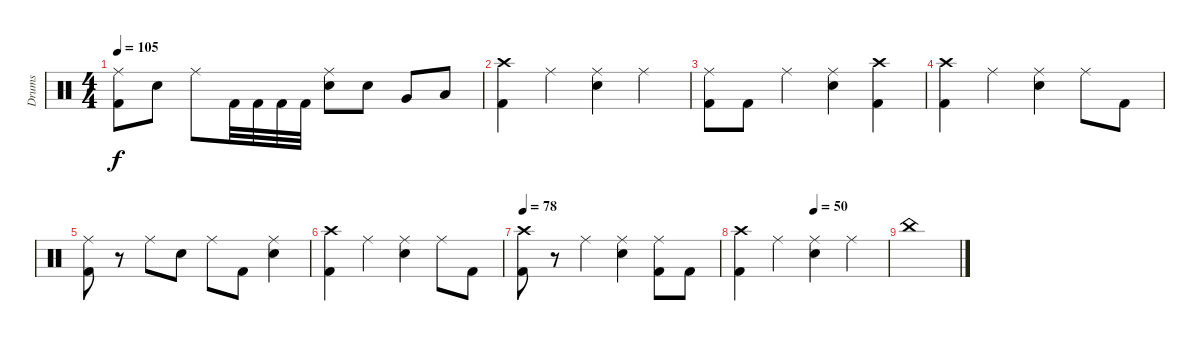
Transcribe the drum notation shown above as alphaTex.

\track ("Drums" "Drums") {instrument percussion}
\staff {score}
\articulation defaults
\ts (4 4)
\tempo 105
\clef neutral
\ks c
("Ride (middle)" "Kick (hit) 2").8{dy f} "Electric Snare (hit)".8 "Ride (middle)".8 "Kick (hit) 2".32 "Kick (hit) 2".32 "Kick (hit) 2".32 "Kick (hit) 2".32 ("Ride (middle)" "Electric Snare (hit)").8 "Electric Snare (hit)".8 "Very Low Tom (hit)".8 "Low Floor Tom (hit)".8 |
("Crash high (hit)" "Kick (hit) 2").4 "Ride (middle)".4 ("Ride (middle)" "Electric Snare (hit)").4 "Ride (middle)".4 |
("Ride (middle)" "Kick (hit) 2").8 "Kick (hit) 2".8 "Ride (middle)".4 ("Ride (middle)" "Electric Snare (hit)").4 ("Crash high (hit)" "Kick (hit) 2").4 |
("Crash high (hit)" "Kick (hit) 2").4 "Ride (middle)".4 ("Ride (middle)" "Electric Snare (hit)").4 "Ride (middle)".8 "Kick (hit) 2".8 |
("Ride (middle)" "Kick (hit) 2").8 r.8 "Ride (middle)".8 "Electric Snare (hit)".8 "Ride (middle)".8 "Kick (hit) 2".8 ("Ride (middle)" "Electric Snare (hit)").4 |
("Crash high (hit)" "Kick (hit) 2").4 "Ride (middle)".4 ("Ride (middle)" "Electric Snare (hit)").4 "Ride (middle)".8 "Kick (hit) 2".8 |
\tempo 78
("Crash high (hit)" "Kick (hit) 2").8 r.8 "Ride (middle)".4 ("Ride (middle)" "Electric Snare (hit)").4 ("Ride (middle)" "Kick (hit) 2").8 "Kick (hit) 2".8 |
\tempo (50 0.5)
("Crash high (hit)" "Kick (hit) 2").4 "Ride (middle)".4 ("Ride (middle)" "Electric Snare (hit)").4 "Ride (middle)".4 |
"China (hit)".1
